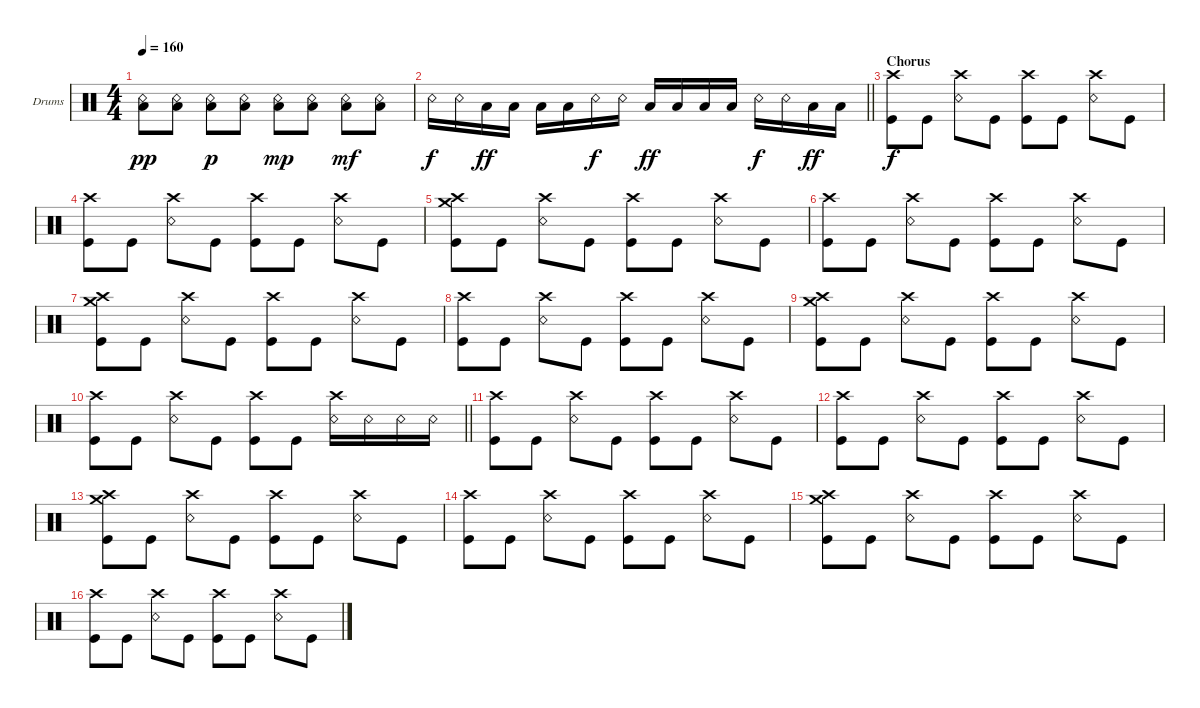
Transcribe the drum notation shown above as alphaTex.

\bracketExtendMode groupsimilarinstruments
\firstSystemTrackNameOrientation horizontal
\otherSystemsTrackNameOrientation horizontal
\track ("Drums" "Drums") {instrument percussion}
\staff {score}
\articulation defaults
\ts (4 4)
\tempo 160
\clef neutral
\ks c
("Low Tom (hit)" "Snare (rim shot)").8{dy pp} ("Low Tom (hit)" "Snare (rim shot)").8 ("Low Tom (hit)" "Snare (rim shot)").8{dy p} ("Low Tom (hit)" "Snare (rim shot)").8 ("Low Tom (hit)" "Snare (rim shot)").8{dy mp} ("Low Tom (hit)" "Snare (rim shot)").8 ("Low Tom (hit)" "Snare (rim shot)").8{dy mf} ("Low Tom (hit)" "Snare (rim shot)").8 |
\barLineRight lightlight "Snare (rim shot)".16{dy f} "Snare (rim shot)".16 "Low Tom (hit)".16{dy ff} "Low Tom (hit)".16 "Low Tom (hit)".16 "Low Tom (hit)".16 "Snare (rim shot)".16{dy f} "Snare (rim shot)".16 "Low Tom (hit)".16{dy ff} "Low Tom (hit)".16 "Low Tom (hit)".16 "Low Tom (hit)".16 "Snare (rim shot)".16{dy f} "Snare (rim shot)".16 "Low Tom (hit)".16{dy ff} "Low Tom (hit)".16
|
\section ("" "Chorus")
("Kick (hit)" "Crash high (hit)").8{dy f} "Kick (hit)".8 ("Snare (rim shot)" "Crash high (hit)").8 "Kick (hit)".8 ("Kick (hit)" "Crash high (hit)").8 "Kick (hit)".8 ("Snare (rim shot)" "Crash high (hit)").8 "Kick (hit)".8 |
("Kick (hit)" "Crash high (hit)").8 "Kick (hit)".8 ("Snare (rim shot)" "Crash high (hit)").8 "Kick (hit)".8 ("Kick (hit)" "Crash high (hit)").8 "Kick (hit)".8 ("Snare (rim shot)" "Crash high (hit)").8 "Kick (hit)".8 |
("Kick (hit)" "Crash high (hit)" "Crash medium (hit)").8 "Kick (hit)".8 ("Snare (rim shot)" "Crash high (hit)").8 "Kick (hit)".8 ("Kick (hit)" "Crash high (hit)").8 "Kick (hit)".8 ("Snare (rim shot)" "Crash high (hit)").8 "Kick (hit)".8 |
("Kick (hit)" "Crash high (hit)").8 "Kick (hit)".8 ("Snare (rim shot)" "Crash high (hit)").8 "Kick (hit)".8 ("Kick (hit)" "Crash high (hit)").8 "Kick (hit)".8 ("Snare (rim shot)" "Crash high (hit)").8 "Kick (hit)".8 |
("Kick (hit)" "Crash high (hit)" "Crash medium (hit)").8 "Kick (hit)".8 ("Snare (rim shot)" "Crash high (hit)").8 "Kick (hit)".8 ("Kick (hit)" "Crash high (hit)").8 "Kick (hit)".8 ("Snare (rim shot)" "Crash high (hit)").8 "Kick (hit)".8 |
("Kick (hit)" "Crash high (hit)").8 "Kick (hit)".8 ("Snare (rim shot)" "Crash high (hit)").8 "Kick (hit)".8 ("Kick (hit)" "Crash high (hit)").8 "Kick (hit)".8 ("Snare (rim shot)" "Crash high (hit)").8 "Kick (hit)".8 |
("Kick (hit)" "Crash high (hit)" "Crash medium (hit)").8 "Kick (hit)".8 ("Snare (rim shot)" "Crash high (hit)").8 "Kick (hit)".8 ("Kick (hit)" "Crash high (hit)").8 "Kick (hit)".8 ("Snare (rim shot)" "Crash high (hit)").8 "Kick (hit)".8 |
\barLineRight lightlight
("Kick (hit)" "Crash high (hit)").8 "Kick (hit)".8 ("Snare (rim shot)" "Crash high (hit)").8 "Kick (hit)".8 ("Kick (hit)" "Crash high (hit)").8 "Kick (hit)".8 ("Snare (rim shot)" "Crash high (hit)").16 "Snare (rim shot)".16 "Snare (rim shot)".16 "Snare (rim shot)".16 |
("Kick (hit)" "Crash high (hit)").8 "Kick (hit)".8 ("Snare (rim shot)" "Crash high (hit)").8 "Kick (hit)".8 ("Kick (hit)" "Crash high (hit)").8 "Kick (hit)".8 ("Snare (rim shot)" "Crash high (hit)").8 "Kick (hit)".8 |
("Kick (hit)" "Crash high (hit)").8 "Kick (hit)".8 ("Snare (rim shot)" "Crash high (hit)").8 "Kick (hit)".8 ("Kick (hit)" "Crash high (hit)").8 "Kick (hit)".8 ("Snare (rim shot)" "Crash high (hit)").8 "Kick (hit)".8 |
("Kick (hit)" "Crash high (hit)" "Crash medium (hit)").8 "Kick (hit)".8 ("Snare (rim shot)" "Crash high (hit)").8 "Kick (hit)".8 ("Kick (hit)" "Crash high (hit)").8 "Kick (hit)".8 ("Snare (rim shot)" "Crash high (hit)").8 "Kick (hit)".8 |
("Kick (hit)" "Crash high (hit)").8 "Kick (hit)".8 ("Snare (rim shot)" "Crash high (hit)").8 "Kick (hit)".8 ("Kick (hit)" "Crash high (hit)").8 "Kick (hit)".8 ("Snare (rim shot)" "Crash high (hit)").8 "Kick (hit)".8 |
("Kick (hit)" "Crash high (hit)" "Crash medium (hit)").8 "Kick (hit)".8 ("Snare (rim shot)" "Crash high (hit)").8 "Kick (hit)".8 ("Kick (hit)" "Crash high (hit)").8 "Kick (hit)".8 ("Snare (rim shot)" "Crash high (hit)").8 "Kick (hit)".8 |
("Kick (hit)" "Crash high (hit)").8 "Kick (hit)".8 ("Snare (rim shot)" "Crash high (hit)").8 "Kick (hit)".8 ("Kick (hit)" "Crash high (hit)").8 "Kick (hit)".8 ("Snare (rim shot)" "Crash high (hit)").8 "Kick (hit)".8
